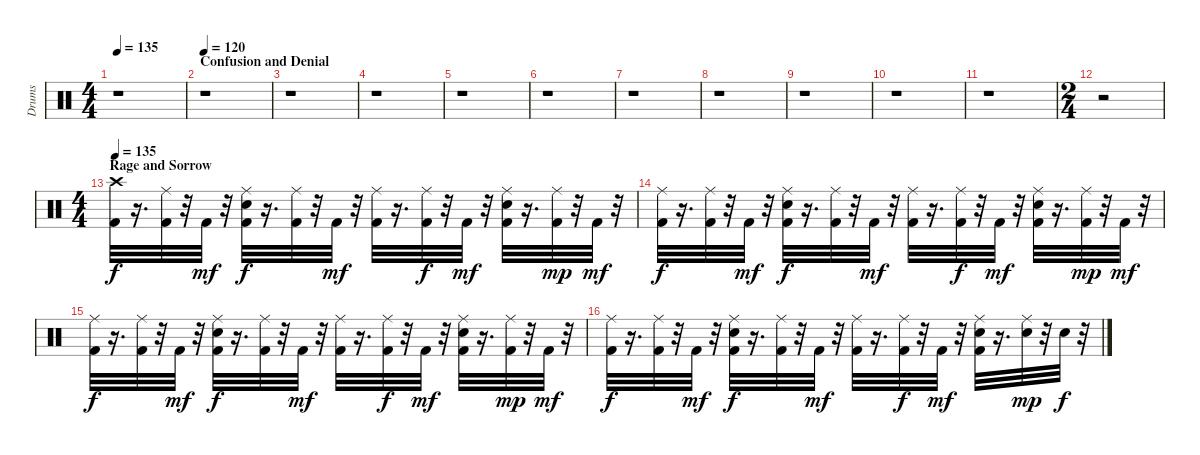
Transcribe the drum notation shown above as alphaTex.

\track ("Drums" "Drums") {instrument percussion}
\staff {score}
\articulation defaults
\ts (4 4)
\tempo 135
\clef neutral
\ks c
r.1{dy f} |
\section ("" "Confusion and Denial ")
\tempo 120
r.1 |
r.1 |
r.1 |
r.1 |
r.1 |
r.1 |
r.1 |
r.1 |
r.1 |
r.1 |
\ts (2 4)
r.2 |
\ts (4 4)
\section ("" "Rage and Sorrow")
\tempo 135
("Crash high (hit)" "Kick (hit) 2").32 r.16{d} ("Ride (middle)" "Kick (hit) 2").32 r.32 "Kick (hit) 2".32{dy mf} r.32 ("Kick (hit) 2" "Ride (middle)" "Snare (hit) 2").32{dy f} r.16{d} ("Ride (middle)" "Kick (hit) 2").32 r.32 "Kick (hit) 2".32{dy mf} r.32 ("Ride (middle)" "Kick (hit) 2").32 r.16{d} ("Ride (middle)" "Kick (hit) 2").32{dy f} r.32 "Kick (hit) 2".32{dy mf} r.32 ("Kick (hit) 2" "Ride (middle)" "Snare (hit) 2").32 r.16{d} ("Ride (middle)" "Kick (hit) 2").32{dy mp} r.32 "Kick (hit) 2".32{dy mf} r.32 |
("Ride (middle)" "Kick (hit) 2").32{dy f} r.16{d} ("Ride (middle)" "Kick (hit) 2").32 r.32 "Kick (hit) 2".32{dy mf} r.32 ("Kick (hit) 2" "Ride (middle)" "Snare (hit) 2").32{dy f} r.16{d} ("Ride (middle)" "Kick (hit) 2").32 r.32 "Kick (hit) 2".32{dy mf} r.32 ("Ride (middle)" "Kick (hit) 2").32 r.16{d} ("Ride (middle)" "Kick (hit) 2").32{dy f} r.32 "Kick (hit) 2".32{dy mf} r.32 ("Kick (hit) 2" "Ride (middle)" "Snare (hit) 2").32 r.16{d} ("Ride (middle)" "Kick (hit) 2").32{dy mp} r.32 "Kick (hit) 2".32{dy mf} r.32 |
("Ride (middle)" "Kick (hit) 2").32{dy f} r.16{d} ("Ride (middle)" "Kick (hit) 2").32 r.32 "Kick (hit) 2".32{dy mf} r.32 ("Kick (hit) 2" "Ride (middle)" "Snare (hit) 2").32{dy f} r.16{d} ("Ride (middle)" "Kick (hit) 2").32 r.32 "Kick (hit) 2".32{dy mf} r.32 ("Ride (middle)" "Kick (hit) 2").32 r.16{d} ("Ride (middle)" "Kick (hit) 2").32{dy f} r.32 "Kick (hit) 2".32{dy mf} r.32 ("Kick (hit) 2" "Ride (middle)" "Snare (hit) 2").32 r.16{d} ("Ride (middle)" "Kick (hit) 2").32{dy mp} r.32 "Kick (hit) 2".32{dy mf} r.32 |
("Ride (middle)" "Kick (hit) 2").32{dy f} r.16{d} ("Ride (middle)" "Kick (hit) 2").32 r.32 "Kick (hit) 2".32{dy mf} r.32 ("Kick (hit) 2" "Ride (middle)" "Snare (hit) 2").32{dy f} r.16{d} ("Ride (middle)" "Kick (hit) 2").32 r.32 "Kick (hit) 2".32{dy mf} r.32 ("Ride (middle)" "Kick (hit) 2").32 r.16{d} ("Ride (middle)" "Kick (hit) 2").32{dy f} r.32 "Kick (hit) 2".32{dy mf} r.32 ("Kick (hit) 2" "Ride (middle)" "Snare (hit) 2").32 r.16{d} ("Snare (hit) 2" "Ride (middle)").32{dy mp} r.32 "Snare (hit) 2".32{dy f} r.32
